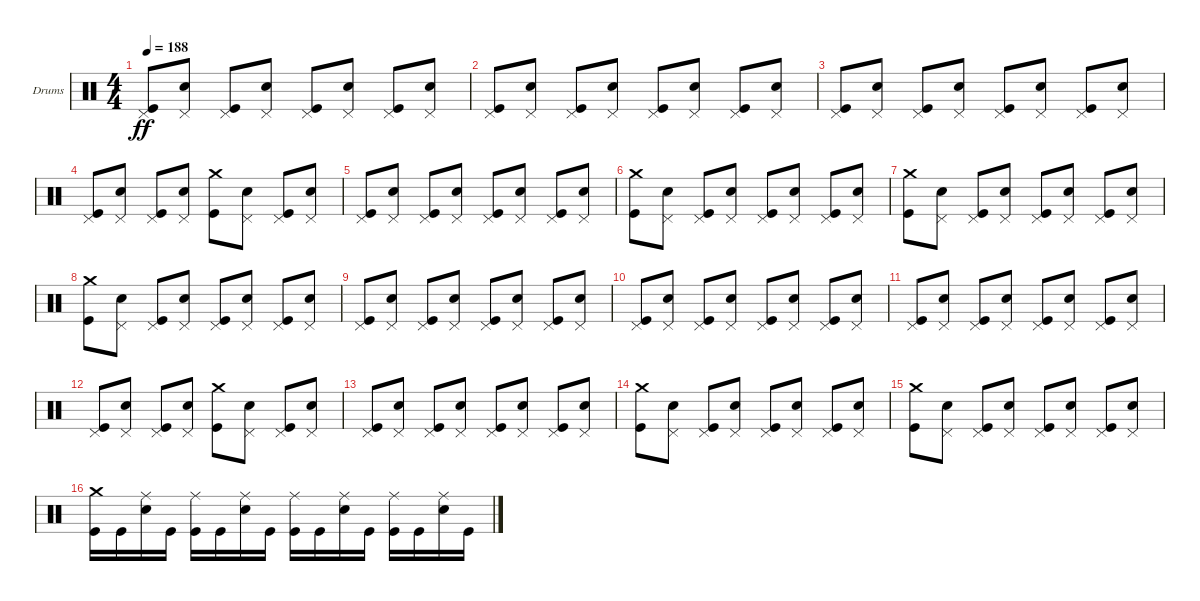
\bracketExtendMode groupsimilarinstruments
\firstSystemTrackNameOrientation horizontal
\otherSystemsTrackNameOrientation horizontal
\track ("Drums" "Drums") {instrument percussion}
\staff {score}
\articulation defaults
\ts (4 4)
\tempo 188
\clef neutral
\ks c
("Kick (hit)" "Pedal Hi-Hat (hit)").8{dy ff} ("Snare (hit) 2" "Pedal Hi-Hat (hit)").8 ("Kick (hit)" "Pedal Hi-Hat (hit)").8 ("Snare (hit) 2" "Pedal Hi-Hat (hit)").8 ("Kick (hit)" "Pedal Hi-Hat (hit)").8 ("Snare (hit) 2" "Pedal Hi-Hat (hit)").8 ("Kick (hit)" "Pedal Hi-Hat (hit)").8 ("Snare (hit) 2" "Pedal Hi-Hat (hit)").8 |
("Kick (hit)" "Pedal Hi-Hat (hit)").8 ("Snare (hit) 2" "Pedal Hi-Hat (hit)").8 ("Kick (hit)" "Pedal Hi-Hat (hit)").8 ("Snare (hit) 2" "Pedal Hi-Hat (hit)").8 ("Kick (hit)" "Pedal Hi-Hat (hit)").8 ("Snare (hit) 2" "Pedal Hi-Hat (hit)").8 ("Kick (hit)" "Pedal Hi-Hat (hit)").8 ("Snare (hit) 2" "Pedal Hi-Hat (hit)").8 |
("Kick (hit)" "Pedal Hi-Hat (hit)").8 ("Snare (hit) 2" "Pedal Hi-Hat (hit)").8 ("Kick (hit)" "Pedal Hi-Hat (hit)").8 ("Snare (hit) 2" "Pedal Hi-Hat (hit)").8 ("Kick (hit)" "Pedal Hi-Hat (hit)").8 ("Snare (hit) 2" "Pedal Hi-Hat (hit)").8 ("Kick (hit)" "Pedal Hi-Hat (hit)").8 ("Snare (hit) 2" "Pedal Hi-Hat (hit)").8 |
("Kick (hit)" "Pedal Hi-Hat (hit)").8 ("Snare (hit) 2" "Pedal Hi-Hat (hit)").8 ("Kick (hit)" "Pedal Hi-Hat (hit)").8 ("Snare (hit) 2" "Pedal Hi-Hat (hit)").8 ("Kick (hit)" "Crash medium (hit)").8 ("Snare (hit) 2" "Pedal Hi-Hat (hit)").8 ("Kick (hit)" "Pedal Hi-Hat (hit)").8 ("Snare (hit) 2" "Pedal Hi-Hat (hit)").8 |
("Kick (hit)" "Pedal Hi-Hat (hit)").8 ("Snare (hit) 2" "Pedal Hi-Hat (hit)").8 ("Kick (hit)" "Pedal Hi-Hat (hit)").8 ("Snare (hit) 2" "Pedal Hi-Hat (hit)").8 ("Kick (hit)" "Pedal Hi-Hat (hit)").8 ("Snare (hit) 2" "Pedal Hi-Hat (hit)").8 ("Kick (hit)" "Pedal Hi-Hat (hit)").8 ("Snare (hit) 2" "Pedal Hi-Hat (hit)").8 |
("Kick (hit)" "Crash medium (hit)").8 ("Snare (hit) 2" "Pedal Hi-Hat (hit)").8 ("Kick (hit)" "Pedal Hi-Hat (hit)").8 ("Snare (hit) 2" "Pedal Hi-Hat (hit)").8 ("Kick (hit)" "Pedal Hi-Hat (hit)").8 ("Snare (hit) 2" "Pedal Hi-Hat (hit)").8 ("Kick (hit)" "Pedal Hi-Hat (hit)").8 ("Snare (hit) 2" "Pedal Hi-Hat (hit)").8 |
("Kick (hit)" "Crash medium (hit)").8 ("Snare (hit) 2" "Pedal Hi-Hat (hit)").8 ("Kick (hit)" "Pedal Hi-Hat (hit)").8 ("Snare (hit) 2" "Pedal Hi-Hat (hit)").8 ("Kick (hit)" "Pedal Hi-Hat (hit)").8 ("Snare (hit) 2" "Pedal Hi-Hat (hit)").8 ("Kick (hit)" "Pedal Hi-Hat (hit)").8 ("Snare (hit) 2" "Pedal Hi-Hat (hit)").8 |
("Kick (hit)" "Crash medium (hit)").8 ("Snare (hit) 2" "Pedal Hi-Hat (hit)").8 ("Kick (hit)" "Pedal Hi-Hat (hit)").8 ("Snare (hit) 2" "Pedal Hi-Hat (hit)").8 ("Kick (hit)" "Pedal Hi-Hat (hit)").8 ("Snare (hit) 2" "Pedal Hi-Hat (hit)").8 ("Kick (hit)" "Pedal Hi-Hat (hit)").8 ("Snare (hit) 2" "Pedal Hi-Hat (hit)").8 |
("Kick (hit)" "Pedal Hi-Hat (hit)").8 ("Snare (hit) 2" "Pedal Hi-Hat (hit)").8 ("Kick (hit)" "Pedal Hi-Hat (hit)").8 ("Snare (hit) 2" "Pedal Hi-Hat (hit)").8 ("Kick (hit)" "Pedal Hi-Hat (hit)").8 ("Snare (hit) 2" "Pedal Hi-Hat (hit)").8 ("Kick (hit)" "Pedal Hi-Hat (hit)").8 ("Snare (hit) 2" "Pedal Hi-Hat (hit)").8 |
("Kick (hit)" "Pedal Hi-Hat (hit)").8 ("Snare (hit) 2" "Pedal Hi-Hat (hit)").8 ("Kick (hit)" "Pedal Hi-Hat (hit)").8 ("Snare (hit) 2" "Pedal Hi-Hat (hit)").8 ("Kick (hit)" "Pedal Hi-Hat (hit)").8 ("Snare (hit) 2" "Pedal Hi-Hat (hit)").8 ("Kick (hit)" "Pedal Hi-Hat (hit)").8 ("Snare (hit) 2" "Pedal Hi-Hat (hit)").8 |
("Kick (hit)" "Pedal Hi-Hat (hit)").8 ("Snare (hit) 2" "Pedal Hi-Hat (hit)").8 ("Kick (hit)" "Pedal Hi-Hat (hit)").8 ("Snare (hit) 2" "Pedal Hi-Hat (hit)").8 ("Kick (hit)" "Pedal Hi-Hat (hit)").8 ("Snare (hit) 2" "Pedal Hi-Hat (hit)").8 ("Kick (hit)" "Pedal Hi-Hat (hit)").8 ("Snare (hit) 2" "Pedal Hi-Hat (hit)").8 |
("Kick (hit)" "Pedal Hi-Hat (hit)").8 ("Snare (hit) 2" "Pedal Hi-Hat (hit)").8 ("Kick (hit)" "Pedal Hi-Hat (hit)").8 ("Snare (hit) 2" "Pedal Hi-Hat (hit)").8 ("Kick (hit)" "Crash medium (hit)").8 ("Snare (hit) 2" "Pedal Hi-Hat (hit)").8 ("Kick (hit)" "Pedal Hi-Hat (hit)").8 ("Snare (hit) 2" "Pedal Hi-Hat (hit)").8 |
("Kick (hit)" "Pedal Hi-Hat (hit)").8 ("Snare (hit) 2" "Pedal Hi-Hat (hit)").8 ("Kick (hit)" "Pedal Hi-Hat (hit)").8 ("Snare (hit) 2" "Pedal Hi-Hat (hit)").8 ("Kick (hit)" "Pedal Hi-Hat (hit)").8 ("Snare (hit) 2" "Pedal Hi-Hat (hit)").8 ("Kick (hit)" "Pedal Hi-Hat (hit)").8 ("Snare (hit) 2" "Pedal Hi-Hat (hit)").8 |
("Kick (hit)" "Crash medium (hit)").8 ("Snare (hit) 2" "Pedal Hi-Hat (hit)").8 ("Kick (hit)" "Pedal Hi-Hat (hit)").8 ("Snare (hit) 2" "Pedal Hi-Hat (hit)").8 ("Kick (hit)" "Pedal Hi-Hat (hit)").8 ("Snare (hit) 2" "Pedal Hi-Hat (hit)").8 ("Kick (hit)" "Pedal Hi-Hat (hit)").8 ("Snare (hit) 2" "Pedal Hi-Hat (hit)").8 |
("Kick (hit)" "Crash medium (hit)").8 ("Snare (hit) 2" "Pedal Hi-Hat (hit)").8 ("Kick (hit)" "Pedal Hi-Hat (hit)").8 ("Snare (hit) 2" "Pedal Hi-Hat (hit)").8 ("Kick (hit)" "Pedal Hi-Hat (hit)").8 ("Snare (hit) 2" "Pedal Hi-Hat (hit)").8 ("Kick (hit)" "Pedal Hi-Hat (hit)").8 ("Snare (hit) 2" "Pedal Hi-Hat (hit)").8 |
("Kick (hit)" "Crash medium (hit)").16 "Kick (hit)".16 ("Snare (hit) 2" "Ride (middle)").16 "Kick (hit)".16 ("Kick (hit)" "Ride (middle)").16 "Kick (hit)".16 ("Snare (hit) 2" "Ride (middle)").16 "Kick (hit)".16 ("Kick (hit)" "Ride (middle)").16 "Kick (hit)".16 ("Snare (hit) 2" "Ride (middle)").16 "Kick (hit)".16 ("Kick (hit)" "Ride (middle)").16 "Kick (hit)".16 ("Snare (hit) 2" "Ride (middle)").16 "Kick (hit)".16
